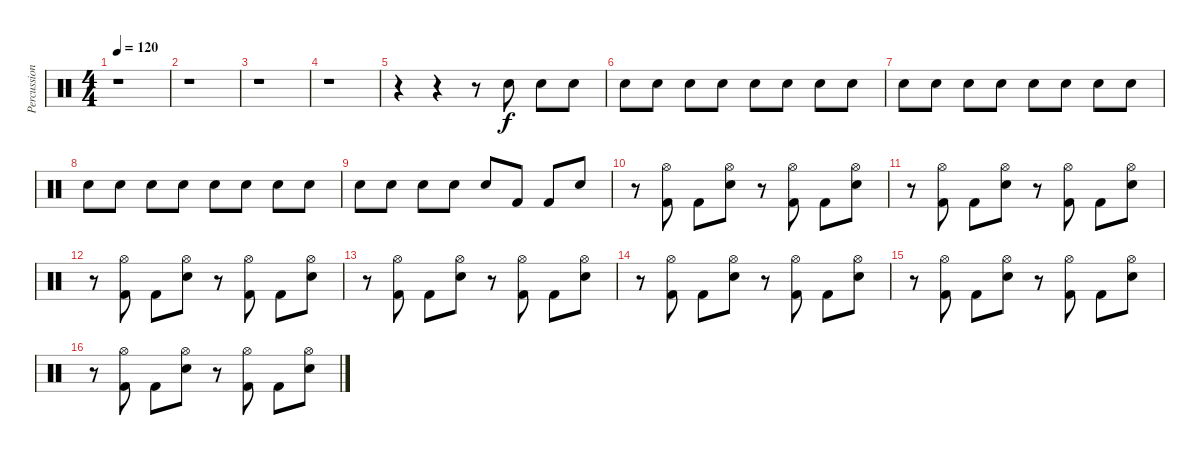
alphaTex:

\track ("Percussion" "Percussion") {solo instrument percussion}
\staff {score}
\articulation defaults
\ts (4 4)
\tempo 120
\clef neutral
\ks c
r.1{dy f} |
r.1 |
r.1 |
r.1 |
r.4 r.4 r.8 "Snare (hit) 2".8 "Snare (hit) 2".8 "Snare (hit) 2".8 |
"Snare (hit) 2".8 "Snare (hit) 2".8 "Snare (hit) 2".8 "Snare (hit) 2".8 "Snare (hit) 2".8 "Snare (hit) 2".8 "Snare (hit) 2".8 "Snare (hit) 2".8 |
"Snare (hit) 2".8 "Snare (hit) 2".8 "Snare (hit) 2".8 "Snare (hit) 2".8 "Snare (hit) 2".8 "Snare (hit) 2".8 "Snare (hit) 2".8 "Snare (hit) 2".8 |
"Snare (hit) 2".8 "Snare (hit) 2".8 "Snare (hit) 2".8 "Snare (hit) 2".8 "Snare (hit) 2".8 "Snare (hit) 2".8 "Snare (hit) 2".8 "Snare (hit) 2".8 |
"Snare (hit) 2".8 "Snare (hit) 2".8 "Snare (hit) 2".8 "Snare (hit) 2".8 "Snare (hit) 2".8 "Kick (hit) 2".8 "Kick (hit) 2".8 "Snare (hit) 2".8 |
r.8 ("Hi-Hat (open)" "Kick (hit) 2").8 "Kick (hit) 2".8 ("Hi-Hat (open)" "Snare (hit) 2").8 r.8 ("Hi-Hat (open)" "Kick (hit) 2").8 "Kick (hit) 2".8 ("Hi-Hat (open)" "Snare (hit) 2").8 |
r.8 ("Hi-Hat (open)" "Kick (hit) 2").8 "Kick (hit) 2".8 ("Hi-Hat (open)" "Snare (hit) 2").8 r.8 ("Hi-Hat (open)" "Kick (hit) 2").8 "Kick (hit) 2".8 ("Hi-Hat (open)" "Snare (hit) 2").8 |
r.8 ("Hi-Hat (open)" "Kick (hit) 2").8 "Kick (hit) 2".8 ("Hi-Hat (open)" "Snare (hit) 2").8 r.8 ("Hi-Hat (open)" "Kick (hit) 2").8 "Kick (hit) 2".8 ("Hi-Hat (open)" "Snare (hit) 2").8 |
r.8 ("Hi-Hat (open)" "Kick (hit) 2").8 "Kick (hit) 2".8 ("Hi-Hat (open)" "Snare (hit) 2").8 r.8 ("Hi-Hat (open)" "Kick (hit) 2").8 "Kick (hit) 2".8 ("Hi-Hat (open)" "Snare (hit) 2").8 |
r.8 ("Hi-Hat (open)" "Kick (hit) 2").8 "Kick (hit) 2".8 ("Hi-Hat (open)" "Snare (hit) 2").8 r.8 ("Hi-Hat (open)" "Kick (hit) 2").8 "Kick (hit) 2".8 ("Hi-Hat (open)" "Snare (hit) 2").8 |
r.8 ("Hi-Hat (open)" "Kick (hit) 2").8 "Kick (hit) 2".8 ("Hi-Hat (open)" "Snare (hit) 2").8 r.8 ("Hi-Hat (open)" "Kick (hit) 2").8 "Kick (hit) 2".8 ("Hi-Hat (open)" "Snare (hit) 2").8 |
r.8 ("Hi-Hat (open)" "Kick (hit) 2").8 "Kick (hit) 2".8 ("Hi-Hat (open)" "Snare (hit) 2").8 r.8 ("Hi-Hat (open)" "Kick (hit) 2").8 "Kick (hit) 2".8 ("Hi-Hat (open)" "Snare (hit) 2").8
